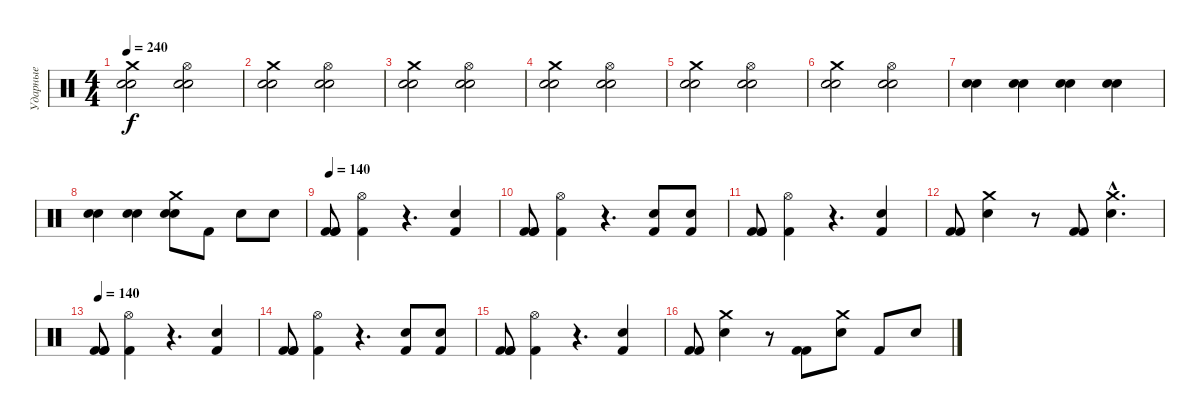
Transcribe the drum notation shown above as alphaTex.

\track ("Ударные" "Ударные") {instrument percussion}
\staff {score}
\articulation defaults
\ts (4 4)
\tempo 240
\clef neutral
\ks c
("Crash medium (hit)" "Snare (hit) 2" "Snare (hit) 2").2{dy f} ("Hi-Hat (open)" "Snare (hit) 2" "Snare (hit) 2").2 |
("Crash medium (hit)" "Snare (hit) 2" "Snare (hit) 2").2 ("Hi-Hat (open)" "Snare (hit) 2" "Snare (hit) 2").2 |
("Crash medium (hit)" "Snare (hit) 2" "Snare (hit) 2").2 ("Hi-Hat (open)" "Snare (hit) 2" "Snare (hit) 2").2 |
("Crash medium (hit)" "Snare (hit) 2" "Snare (hit) 2").2 ("Hi-Hat (open)" "Snare (hit) 2" "Snare (hit) 2").2 |
("Crash medium (hit)" "Snare (hit) 2" "Snare (hit) 2").2 ("Hi-Hat (open)" "Snare (hit) 2" "Snare (hit) 2").2 |
("Crash medium (hit)" "Snare (hit) 2" "Snare (hit) 2").2 ("Hi-Hat (open)" "Snare (hit) 2" "Snare (hit) 2").2 |
("Snare (hit) 2" "Snare (hit) 2").4 ("Snare (hit) 2" "Snare (hit) 2").4 ("Snare (hit) 2" "Snare (hit) 2").4 ("Snare (hit) 2" "Snare (hit) 2").4 |
("Snare (hit) 2" "Snare (hit) 2").4 ("Snare (hit) 2" "Snare (hit) 2").4 ("Crash medium (hit)" "Snare (hit) 2" "Snare (hit) 2").8 "Kick (hit) 2".8 "Snare (hit) 2".8 "Snare (hit) 2".8 |
\tempo 140
("Kick (hit) 2" "Kick (hit) 2" "Kick (hit) 2").8 ("Kick (hit) 2" "Hi-Hat (open)").4 r.4{d} ("Kick (hit) 2" "Snare (hit) 2").4 |
("Kick (hit) 2" "Kick (hit) 2" "Kick (hit) 2").8 ("Kick (hit) 2" "Hi-Hat (open)").4 r.4{d} ("Kick (hit) 2" "Snare (hit) 2").8 ("Kick (hit) 2" "Snare (hit) 2").8 |
("Kick (hit) 2" "Kick (hit) 2" "Kick (hit) 2").8 ("Kick (hit) 2" "Hi-Hat (open)").4 r.4{d} ("Kick (hit) 2" "Snare (hit) 2").4 |
("Kick (hit) 2" "Kick (hit) 2").8 ("Snare (hit) 2" "Crash medium (hit)").4 r.8 ("Kick (hit) 2" "Kick (hit) 2").8 ("Snare (hit) 2"{hac} "Crash medium (hit)"{hac}).4{d} |
\tempo 140
("Kick (hit) 2" "Kick (hit) 2" "Kick (hit) 2").8 ("Kick (hit) 2" "Hi-Hat (open)").4 r.4{d} ("Kick (hit) 2" "Snare (hit) 2").4 |
("Kick (hit) 2" "Kick (hit) 2" "Kick (hit) 2").8 ("Kick (hit) 2" "Hi-Hat (open)").4 r.4{d} ("Kick (hit) 2" "Snare (hit) 2").8 ("Kick (hit) 2" "Snare (hit) 2").8 |
("Kick (hit) 2" "Kick (hit) 2" "Kick (hit) 2").8 ("Kick (hit) 2" "Hi-Hat (open)").4 r.4{d} ("Kick (hit) 2" "Snare (hit) 2").4 |
("Kick (hit) 2" "Kick (hit) 2").8 ("Snare (hit) 2" "Crash medium (hit)").4 r.8 ("Kick (hit) 2" "Kick (hit) 2").8 ("Snare (hit) 2" "Crash medium (hit)").8 "Kick (hit) 2".8 "Snare (hit) 2".8
